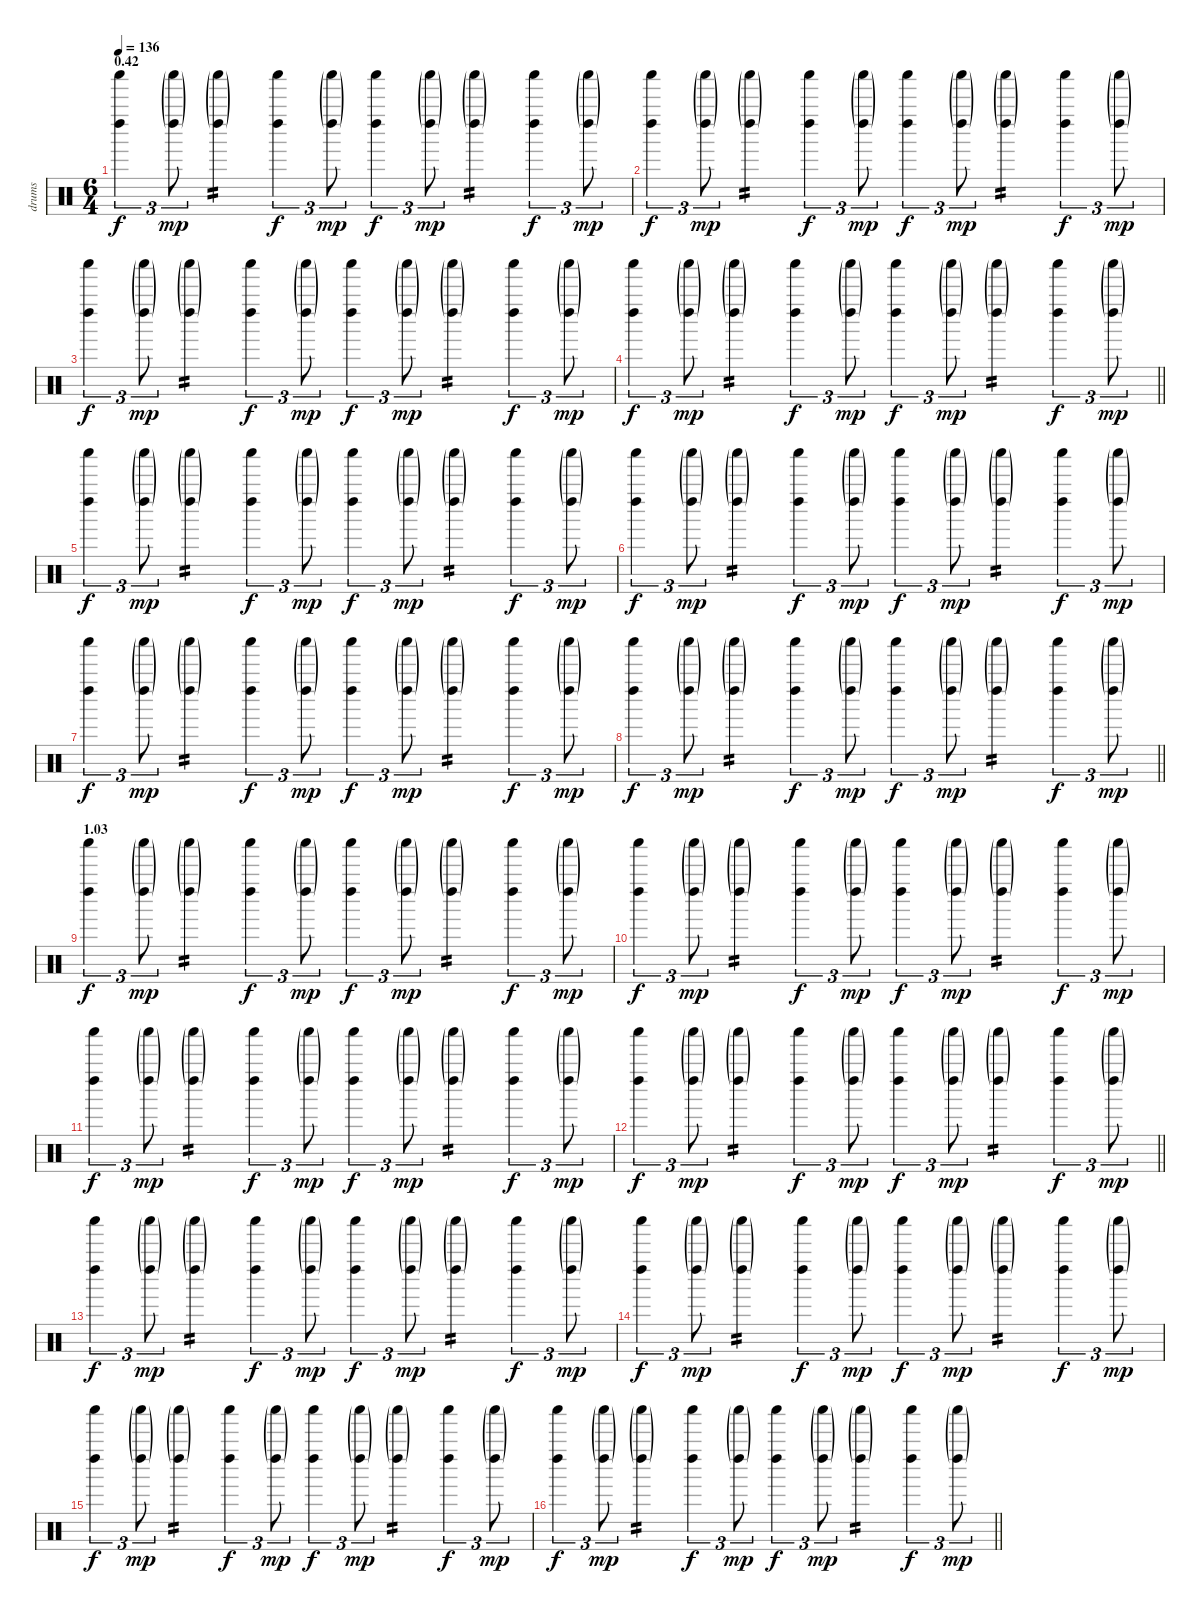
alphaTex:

\track ("drums" "drums") {instrument percussion}
\staff {score}
\articulation defaults
\ts (6 4)
\section ("" "0.42")
\tempo 136
\clef neutral
\ks c
("Left Maraca (hit)" "Shaker (hit)").4{tu (3 2) dy f} ("Left Maraca (hit)"{g} "Shaker (hit)"{g}).8{tu (3 2) dy mp} ("Left Maraca (hit)"{g} "Shaker (hit)"{g}).4{tp 2} ("Left Maraca (hit)" "Shaker (hit)").4{tu (3 2) dy f} ("Left Maraca (hit)"{g} "Shaker (hit)"{g}).8{tu (3 2) dy mp} ("Left Maraca (hit)" "Shaker (hit)").4{tu (3 2) dy f} ("Left Maraca (hit)"{g} "Shaker (hit)"{g}).8{tu (3 2) dy mp} ("Left Maraca (hit)"{g} "Shaker (hit)"{g}).4{tp 2} ("Left Maraca (hit)" "Shaker (hit)").4{tu (3 2) dy f} ("Left Maraca (hit)"{g} "Shaker (hit)"{g}).8{tu (3 2) dy mp} |
("Left Maraca (hit)" "Shaker (hit)").4{tu (3 2) dy f} ("Left Maraca (hit)"{g} "Shaker (hit)"{g}).8{tu (3 2) dy mp} ("Left Maraca (hit)"{g} "Shaker (hit)"{g}).4{tp 2} ("Left Maraca (hit)" "Shaker (hit)").4{tu (3 2) dy f} ("Left Maraca (hit)"{g} "Shaker (hit)"{g}).8{tu (3 2) dy mp} ("Left Maraca (hit)" "Shaker (hit)").4{tu (3 2) dy f} ("Left Maraca (hit)"{g} "Shaker (hit)"{g}).8{tu (3 2) dy mp} ("Left Maraca (hit)"{g} "Shaker (hit)"{g}).4{tp 2} ("Left Maraca (hit)" "Shaker (hit)").4{tu (3 2) dy f} ("Left Maraca (hit)"{g} "Shaker (hit)"{g}).8{tu (3 2) dy mp} |
("Left Maraca (hit)" "Shaker (hit)").4{tu (3 2) dy f} ("Left Maraca (hit)"{g} "Shaker (hit)"{g}).8{tu (3 2) dy mp} ("Left Maraca (hit)"{g} "Shaker (hit)"{g}).4{tp 2} ("Left Maraca (hit)" "Shaker (hit)").4{tu (3 2) dy f} ("Left Maraca (hit)"{g} "Shaker (hit)"{g}).8{tu (3 2) dy mp} ("Left Maraca (hit)" "Shaker (hit)").4{tu (3 2) dy f} ("Left Maraca (hit)"{g} "Shaker (hit)"{g}).8{tu (3 2) dy mp} ("Left Maraca (hit)"{g} "Shaker (hit)"{g}).4{tp 2} ("Left Maraca (hit)" "Shaker (hit)").4{tu (3 2) dy f} ("Left Maraca (hit)"{g} "Shaker (hit)"{g}).8{tu (3 2) dy mp} |
\barLineRight lightlight
("Left Maraca (hit)" "Shaker (hit)").4{tu (3 2) dy f} ("Left Maraca (hit)"{g} "Shaker (hit)"{g}).8{tu (3 2) dy mp} ("Left Maraca (hit)"{g} "Shaker (hit)"{g}).4{tp 2} ("Left Maraca (hit)" "Shaker (hit)").4{tu (3 2) dy f} ("Left Maraca (hit)"{g} "Shaker (hit)"{g}).8{tu (3 2) dy mp} ("Left Maraca (hit)" "Shaker (hit)").4{tu (3 2) dy f} ("Left Maraca (hit)"{g} "Shaker (hit)"{g}).8{tu (3 2) dy mp} ("Left Maraca (hit)"{g} "Shaker (hit)"{g}).4{tp 2} ("Left Maraca (hit)" "Shaker (hit)").4{tu (3 2) dy f} ("Left Maraca (hit)"{g} "Shaker (hit)"{g}).8{tu (3 2) dy mp} |
("Left Maraca (hit)" "Shaker (hit)").4{tu (3 2) dy f} ("Left Maraca (hit)"{g} "Shaker (hit)"{g}).8{tu (3 2) dy mp} ("Left Maraca (hit)"{g} "Shaker (hit)"{g}).4{tp 2} ("Left Maraca (hit)" "Shaker (hit)").4{tu (3 2) dy f} ("Left Maraca (hit)"{g} "Shaker (hit)"{g}).8{tu (3 2) dy mp} ("Left Maraca (hit)" "Shaker (hit)").4{tu (3 2) dy f} ("Left Maraca (hit)"{g} "Shaker (hit)"{g}).8{tu (3 2) dy mp} ("Left Maraca (hit)"{g} "Shaker (hit)"{g}).4{tp 2} ("Left Maraca (hit)" "Shaker (hit)").4{tu (3 2) dy f} ("Left Maraca (hit)"{g} "Shaker (hit)"{g}).8{tu (3 2) dy mp} |
("Left Maraca (hit)" "Shaker (hit)").4{tu (3 2) dy f} ("Left Maraca (hit)"{g} "Shaker (hit)"{g}).8{tu (3 2) dy mp} ("Left Maraca (hit)"{g} "Shaker (hit)"{g}).4{tp 2} ("Left Maraca (hit)" "Shaker (hit)").4{tu (3 2) dy f} ("Left Maraca (hit)"{g} "Shaker (hit)"{g}).8{tu (3 2) dy mp} ("Left Maraca (hit)" "Shaker (hit)").4{tu (3 2) dy f} ("Left Maraca (hit)"{g} "Shaker (hit)"{g}).8{tu (3 2) dy mp} ("Left Maraca (hit)"{g} "Shaker (hit)"{g}).4{tp 2} ("Left Maraca (hit)" "Shaker (hit)").4{tu (3 2) dy f} ("Left Maraca (hit)"{g} "Shaker (hit)"{g}).8{tu (3 2) dy mp} |
("Left Maraca (hit)" "Shaker (hit)").4{tu (3 2) dy f} ("Left Maraca (hit)"{g} "Shaker (hit)"{g}).8{tu (3 2) dy mp} ("Left Maraca (hit)"{g} "Shaker (hit)"{g}).4{tp 2} ("Left Maraca (hit)" "Shaker (hit)").4{tu (3 2) dy f} ("Left Maraca (hit)"{g} "Shaker (hit)"{g}).8{tu (3 2) dy mp} ("Left Maraca (hit)" "Shaker (hit)").4{tu (3 2) dy f} ("Left Maraca (hit)"{g} "Shaker (hit)"{g}).8{tu (3 2) dy mp} ("Left Maraca (hit)"{g} "Shaker (hit)"{g}).4{tp 2} ("Left Maraca (hit)" "Shaker (hit)").4{tu (3 2) dy f} ("Left Maraca (hit)"{g} "Shaker (hit)"{g}).8{tu (3 2) dy mp} |
\barLineRight lightlight
("Left Maraca (hit)" "Shaker (hit)").4{tu (3 2) dy f} ("Left Maraca (hit)"{g} "Shaker (hit)"{g}).8{tu (3 2) dy mp} ("Left Maraca (hit)"{g} "Shaker (hit)"{g}).4{tp 2} ("Left Maraca (hit)" "Shaker (hit)").4{tu (3 2) dy f} ("Left Maraca (hit)"{g} "Shaker (hit)"{g}).8{tu (3 2) dy mp} ("Left Maraca (hit)" "Shaker (hit)").4{tu (3 2) dy f} ("Left Maraca (hit)"{g} "Shaker (hit)"{g}).8{tu (3 2) dy mp} ("Left Maraca (hit)"{g} "Shaker (hit)"{g}).4{tp 2} ("Left Maraca (hit)" "Shaker (hit)").4{tu (3 2) dy f} ("Left Maraca (hit)"{g} "Shaker (hit)"{g}).8{tu (3 2) dy mp} |
\section ("" "1.03")
("Left Maraca (hit)" "Shaker (hit)").4{tu (3 2) dy f} ("Left Maraca (hit)"{g} "Shaker (hit)"{g}).8{tu (3 2) dy mp} ("Left Maraca (hit)"{g} "Shaker (hit)"{g}).4{tp 2} ("Left Maraca (hit)" "Shaker (hit)").4{tu (3 2) dy f} ("Left Maraca (hit)"{g} "Shaker (hit)"{g}).8{tu (3 2) dy mp} ("Left Maraca (hit)" "Shaker (hit)").4{tu (3 2) dy f} ("Left Maraca (hit)"{g} "Shaker (hit)"{g}).8{tu (3 2) dy mp} ("Left Maraca (hit)"{g} "Shaker (hit)"{g}).4{tp 2} ("Left Maraca (hit)" "Shaker (hit)").4{tu (3 2) dy f} ("Left Maraca (hit)"{g} "Shaker (hit)"{g}).8{tu (3 2) dy mp} |
("Left Maraca (hit)" "Shaker (hit)").4{tu (3 2) dy f} ("Left Maraca (hit)"{g} "Shaker (hit)"{g}).8{tu (3 2) dy mp} ("Left Maraca (hit)"{g} "Shaker (hit)"{g}).4{tp 2} ("Left Maraca (hit)" "Shaker (hit)").4{tu (3 2) dy f} ("Left Maraca (hit)"{g} "Shaker (hit)"{g}).8{tu (3 2) dy mp} ("Left Maraca (hit)" "Shaker (hit)").4{tu (3 2) dy f} ("Left Maraca (hit)"{g} "Shaker (hit)"{g}).8{tu (3 2) dy mp} ("Left Maraca (hit)"{g} "Shaker (hit)"{g}).4{tp 2} ("Left Maraca (hit)" "Shaker (hit)").4{tu (3 2) dy f} ("Left Maraca (hit)"{g} "Shaker (hit)"{g}).8{tu (3 2) dy mp} |
("Left Maraca (hit)" "Shaker (hit)").4{tu (3 2) dy f} ("Left Maraca (hit)"{g} "Shaker (hit)"{g}).8{tu (3 2) dy mp} ("Left Maraca (hit)"{g} "Shaker (hit)"{g}).4{tp 2} ("Left Maraca (hit)" "Shaker (hit)").4{tu (3 2) dy f} ("Left Maraca (hit)"{g} "Shaker (hit)"{g}).8{tu (3 2) dy mp} ("Left Maraca (hit)" "Shaker (hit)").4{tu (3 2) dy f} ("Left Maraca (hit)"{g} "Shaker (hit)"{g}).8{tu (3 2) dy mp} ("Left Maraca (hit)"{g} "Shaker (hit)"{g}).4{tp 2} ("Left Maraca (hit)" "Shaker (hit)").4{tu (3 2) dy f} ("Left Maraca (hit)"{g} "Shaker (hit)"{g}).8{tu (3 2) dy mp} |
\barLineRight lightlight
("Left Maraca (hit)" "Shaker (hit)").4{tu (3 2) dy f} ("Left Maraca (hit)"{g} "Shaker (hit)"{g}).8{tu (3 2) dy mp} ("Left Maraca (hit)"{g} "Shaker (hit)"{g}).4{tp 2} ("Left Maraca (hit)" "Shaker (hit)").4{tu (3 2) dy f} ("Left Maraca (hit)"{g} "Shaker (hit)"{g}).8{tu (3 2) dy mp} ("Left Maraca (hit)" "Shaker (hit)").4{tu (3 2) dy f} ("Left Maraca (hit)"{g} "Shaker (hit)"{g}).8{tu (3 2) dy mp} ("Left Maraca (hit)"{g} "Shaker (hit)"{g}).4{tp 2} ("Left Maraca (hit)" "Shaker (hit)").4{tu (3 2) dy f} ("Left Maraca (hit)"{g} "Shaker (hit)"{g}).8{tu (3 2) dy mp} |
("Left Maraca (hit)" "Shaker (hit)").4{tu (3 2) dy f} ("Left Maraca (hit)"{g} "Shaker (hit)"{g}).8{tu (3 2) dy mp} ("Left Maraca (hit)"{g} "Shaker (hit)"{g}).4{tp 2} ("Left Maraca (hit)" "Shaker (hit)").4{tu (3 2) dy f} ("Left Maraca (hit)"{g} "Shaker (hit)"{g}).8{tu (3 2) dy mp} ("Left Maraca (hit)" "Shaker (hit)").4{tu (3 2) dy f} ("Left Maraca (hit)"{g} "Shaker (hit)"{g}).8{tu (3 2) dy mp} ("Left Maraca (hit)"{g} "Shaker (hit)"{g}).4{tp 2} ("Left Maraca (hit)" "Shaker (hit)").4{tu (3 2) dy f} ("Left Maraca (hit)"{g} "Shaker (hit)"{g}).8{tu (3 2) dy mp} |
("Left Maraca (hit)" "Shaker (hit)").4{tu (3 2) dy f} ("Left Maraca (hit)"{g} "Shaker (hit)"{g}).8{tu (3 2) dy mp} ("Left Maraca (hit)"{g} "Shaker (hit)"{g}).4{tp 2} ("Left Maraca (hit)" "Shaker (hit)").4{tu (3 2) dy f} ("Left Maraca (hit)"{g} "Shaker (hit)"{g}).8{tu (3 2) dy mp} ("Left Maraca (hit)" "Shaker (hit)").4{tu (3 2) dy f} ("Left Maraca (hit)"{g} "Shaker (hit)"{g}).8{tu (3 2) dy mp} ("Left Maraca (hit)"{g} "Shaker (hit)"{g}).4{tp 2} ("Left Maraca (hit)" "Shaker (hit)").4{tu (3 2) dy f} ("Left Maraca (hit)"{g} "Shaker (hit)"{g}).8{tu (3 2) dy mp} |
("Left Maraca (hit)" "Shaker (hit)").4{tu (3 2) dy f} ("Left Maraca (hit)"{g} "Shaker (hit)"{g}).8{tu (3 2) dy mp} ("Left Maraca (hit)"{g} "Shaker (hit)"{g}).4{tp 2} ("Left Maraca (hit)" "Shaker (hit)").4{tu (3 2) dy f} ("Left Maraca (hit)"{g} "Shaker (hit)"{g}).8{tu (3 2) dy mp} ("Left Maraca (hit)" "Shaker (hit)").4{tu (3 2) dy f} ("Left Maraca (hit)"{g} "Shaker (hit)"{g}).8{tu (3 2) dy mp} ("Left Maraca (hit)"{g} "Shaker (hit)"{g}).4{tp 2} ("Left Maraca (hit)" "Shaker (hit)").4{tu (3 2) dy f} ("Left Maraca (hit)"{g} "Shaker (hit)"{g}).8{tu (3 2) dy mp} |
\barLineRight lightlight
("Left Maraca (hit)" "Shaker (hit)").4{tu (3 2) dy f} ("Left Maraca (hit)"{g} "Shaker (hit)"{g}).8{tu (3 2) dy mp} ("Left Maraca (hit)"{g} "Shaker (hit)"{g}).4{tp 2} ("Left Maraca (hit)" "Shaker (hit)").4{tu (3 2) dy f} ("Left Maraca (hit)"{g} "Shaker (hit)"{g}).8{tu (3 2) dy mp} ("Left Maraca (hit)" "Shaker (hit)").4{tu (3 2) dy f} ("Left Maraca (hit)"{g} "Shaker (hit)"{g}).8{tu (3 2) dy mp} ("Left Maraca (hit)"{g} "Shaker (hit)"{g}).4{tp 2} ("Left Maraca (hit)" "Shaker (hit)").4{tu (3 2) dy f} ("Left Maraca (hit)"{g} "Shaker (hit)"{g}).8{tu (3 2) dy mp}
